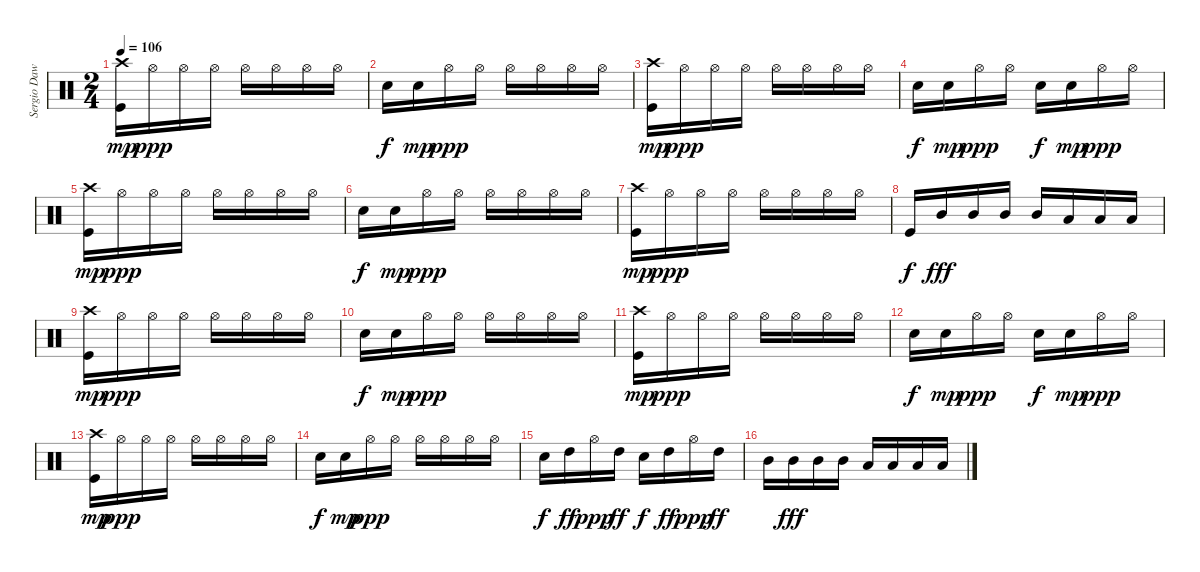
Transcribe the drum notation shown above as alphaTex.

\track ("Sergio Dawi" "Sergio Daw") {instrument percussion}
\staff {score}
\articulation defaults
\ts (2 4)
\tempo 106
\clef neutral
\ks c
("Kick (hit)" "Crash high (hit)").16{dy mp} "Hi-Hat (open)".16{dy ppp} "Hi-Hat (open)".16 "Hi-Hat (open)".16 "Hi-Hat (open)".16 "Hi-Hat (open)".16 "Hi-Hat (open)".16 "Hi-Hat (open)".16 |
"Electric Snare (hit)".16{dy f} "Electric Snare (hit)".16{dy mp} "Hi-Hat (open)".16{dy ppp} "Hi-Hat (open)".16 "Hi-Hat (open)".16 "Hi-Hat (open)".16 "Hi-Hat (open)".16 "Hi-Hat (open)".16 |
("Kick (hit)" "Crash high (hit)").16{dy mp} "Hi-Hat (open)".16{dy ppp} "Hi-Hat (open)".16 "Hi-Hat (open)".16 "Hi-Hat (open)".16 "Hi-Hat (open)".16 "Hi-Hat (open)".16 "Hi-Hat (open)".16 |
"Electric Snare (hit)".16{dy f} "Electric Snare (hit)".16{dy mp} "Hi-Hat (open)".16{dy ppp} "Hi-Hat (open)".16 "Electric Snare (hit)".16{dy f} "Electric Snare (hit)".16{dy mp} "Hi-Hat (open)".16{dy ppp} "Hi-Hat (open)".16 |
("Kick (hit)" "Crash high (hit)").16{dy mp} "Hi-Hat (open)".16{dy ppp} "Hi-Hat (open)".16 "Hi-Hat (open)".16 "Hi-Hat (open)".16 "Hi-Hat (open)".16 "Hi-Hat (open)".16 "Hi-Hat (open)".16 |
"Electric Snare (hit)".16{dy f} "Electric Snare (hit)".16{dy mp} "Hi-Hat (open)".16{dy ppp} "Hi-Hat (open)".16 "Hi-Hat (open)".16 "Hi-Hat (open)".16 "Hi-Hat (open)".16 "Hi-Hat (open)".16 |
("Kick (hit)" "Crash high (hit)").16{dy mp} "Hi-Hat (open)".16{dy ppp} "Hi-Hat (open)".16 "Hi-Hat (open)".16 "Hi-Hat (open)".16 "Hi-Hat (open)".16 "Hi-Hat (open)".16 "Hi-Hat (open)".16 |
"Kick (hit)".16{dy f} "Mid Tom (hit)".16{dy fff} "Mid Tom (hit)".16 "Mid Tom (hit)".16 "Mid Tom (hit)".16 "Low Tom (hit)".16 "Low Tom (hit)".16 "Low Tom (hit)".16 |
("Kick (hit)" "Crash high (hit)").16{dy mp} "Hi-Hat (open)".16{dy ppp} "Hi-Hat (open)".16 "Hi-Hat (open)".16 "Hi-Hat (open)".16 "Hi-Hat (open)".16 "Hi-Hat (open)".16 "Hi-Hat (open)".16 |
"Electric Snare (hit)".16{dy f} "Electric Snare (hit)".16{dy mp} "Hi-Hat (open)".16{dy ppp} "Hi-Hat (open)".16 "Hi-Hat (open)".16 "Hi-Hat (open)".16 "Hi-Hat (open)".16 "Hi-Hat (open)".16 |
("Kick (hit)" "Crash high (hit)").16{dy mp} "Hi-Hat (open)".16{dy ppp} "Hi-Hat (open)".16 "Hi-Hat (open)".16 "Hi-Hat (open)".16 "Hi-Hat (open)".16 "Hi-Hat (open)".16 "Hi-Hat (open)".16 |
"Electric Snare (hit)".16{dy f} "Electric Snare (hit)".16{dy mp} "Hi-Hat (open)".16{dy ppp} "Hi-Hat (open)".16 "Electric Snare (hit)".16{dy f} "Electric Snare (hit)".16{dy mp} "Hi-Hat (open)".16{dy ppp} "Hi-Hat (open)".16 |
("Kick (hit)" "Crash high (hit)").16{dy mp} "Hi-Hat (open)".16{dy ppp} "Hi-Hat (open)".16 "Hi-Hat (open)".16 "Hi-Hat (open)".16 "Hi-Hat (open)".16 "Hi-Hat (open)".16 "Hi-Hat (open)".16 |
"Electric Snare (hit)".16{dy f} "Electric Snare (hit)".16{dy mp} "Hi-Hat (open)".16{dy ppp} "Hi-Hat (open)".16 "Hi-Hat (open)".16 "Hi-Hat (open)".16 "Hi-Hat (open)".16 "Hi-Hat (open)".16 |
"Electric Snare (hit)".16{dy f} "High Tom (hit)".16{dy ff} "Hi-Hat (open)".16{dy ppp} "High Tom (hit)".16{dy ff} "Electric Snare (hit)".16{dy f} "High Tom (hit)".16{dy ff} "Hi-Hat (open)".16{dy ppp} "High Tom (hit)".16{dy ff} |
"Mid Tom (hit)".16 "Mid Tom (hit)".16{dy fff} "Mid Tom (hit)".16 "Mid Tom (hit)".16 "Low Tom (hit)".16 "Low Tom (hit)".16 "Low Tom (hit)".16 "Low Tom (hit)".16
